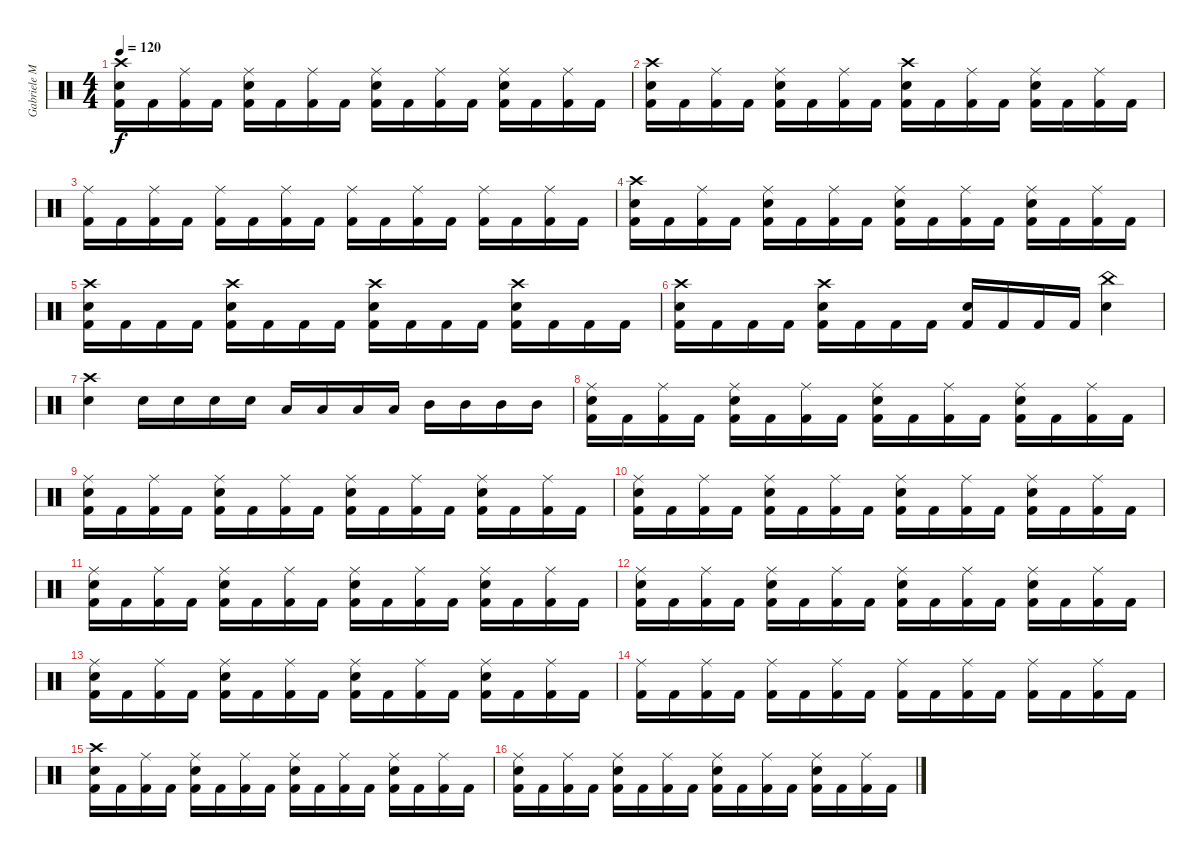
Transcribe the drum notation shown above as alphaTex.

\track ("Gabriele Malatesta" "Gabriele M") {instrument percussion}
\staff {score}
\articulation defaults
\ts (4 4)
\tempo 120
\clef neutral
\ks c
("Crash high (hit)" "Electric Snare (hit)" "Kick (hit) 2").16{dy f} "Kick (hit) 2".16 ("Ride (middle)" "Kick (hit) 2").16 "Kick (hit) 2".16 ("Ride (middle)" "Electric Snare (hit)" "Kick (hit) 2").16 "Kick (hit) 2".16 ("Ride (middle)" "Kick (hit) 2").16 "Kick (hit) 2".16 ("Ride (middle)" "Electric Snare (hit)" "Kick (hit) 2").16 "Kick (hit) 2".16 ("Ride (middle)" "Kick (hit) 2").16 "Kick (hit) 2".16 ("Ride (middle)" "Electric Snare (hit)" "Kick (hit) 2").16 "Kick (hit) 2".16 ("Ride (middle)" "Kick (hit) 2").16 "Kick (hit) 2".16 |
("Crash high (hit)" "Electric Snare (hit)" "Kick (hit) 2").16 "Kick (hit) 2".16 ("Ride (middle)" "Kick (hit) 2").16 "Kick (hit) 2".16 ("Ride (middle)" "Electric Snare (hit)" "Kick (hit) 2").16 "Kick (hit) 2".16 ("Ride (middle)" "Kick (hit) 2").16 "Kick (hit) 2".16 ("Crash high (hit)" "Electric Snare (hit)" "Kick (hit) 2").16 "Kick (hit) 2".16 ("Ride (middle)" "Kick (hit) 2").16 "Kick (hit) 2".16 ("Ride (middle)" "Electric Snare (hit)" "Kick (hit) 2").16 "Kick (hit) 2".16 ("Ride (middle)" "Kick (hit) 2").16 "Kick (hit) 2".16 |
("Ride (middle)" "Kick (hit) 2").16 "Kick (hit) 2".16 ("Ride (middle)" "Kick (hit) 2").16 "Kick (hit) 2".16 ("Ride (middle)" "Kick (hit) 2").16 "Kick (hit) 2".16 ("Ride (middle)" "Kick (hit) 2").16 "Kick (hit) 2".16 ("Ride (middle)" "Kick (hit) 2").16 "Kick (hit) 2".16 ("Ride (middle)" "Kick (hit) 2").16 "Kick (hit) 2".16 ("Ride (middle)" "Kick (hit) 2").16 "Kick (hit) 2".16 ("Ride (middle)" "Kick (hit) 2").16 "Kick (hit) 2".16 |
("Crash high (hit)" "Electric Snare (hit)" "Kick (hit) 2").16 "Kick (hit) 2".16 ("Ride (middle)" "Kick (hit) 2").16 "Kick (hit) 2".16 ("Ride (middle)" "Electric Snare (hit)" "Kick (hit) 2").16 "Kick (hit) 2".16 ("Ride (middle)" "Kick (hit) 2").16 "Kick (hit) 2".16 ("Ride (middle)" "Electric Snare (hit)" "Kick (hit) 2").16 "Kick (hit) 2".16 ("Ride (middle)" "Kick (hit) 2").16 "Kick (hit) 2".16 ("Ride (middle)" "Electric Snare (hit)" "Kick (hit) 2").16 "Kick (hit) 2".16 ("Ride (middle)" "Kick (hit) 2").16 "Kick (hit) 2".16 |
("Crash high (hit)" "Electric Snare (hit)" "Kick (hit) 2").16 "Kick (hit) 2".16 "Kick (hit) 2".16 "Kick (hit) 2".16 ("Crash high (hit)" "Electric Snare (hit)" "Kick (hit) 2").16 "Kick (hit) 2".16 "Kick (hit) 2".16 "Kick (hit) 2".16 ("Crash high (hit)" "Electric Snare (hit)" "Kick (hit) 2").16 "Kick (hit) 2".16 "Kick (hit) 2".16 "Kick (hit) 2".16 ("Crash high (hit)" "Electric Snare (hit)" "Kick (hit) 2").16 "Kick (hit) 2".16 "Kick (hit) 2".16 "Kick (hit) 2".16 |
("Crash high (hit)" "Electric Snare (hit)" "Kick (hit) 2").16 "Kick (hit) 2".16 "Kick (hit) 2".16 "Kick (hit) 2".16 ("Crash high (hit)" "Electric Snare (hit)" "Kick (hit) 2").16 "Kick (hit) 2".16 "Kick (hit) 2".16 "Kick (hit) 2".16 ("Electric Snare (hit)" "Kick (hit) 2").16 "Kick (hit) 2".16 "Kick (hit) 2".16 "Kick (hit) 2".16 ("China (hit)" "Electric Snare (hit)").4 |
("Crash high (hit)" "Electric Snare (hit)").4 "Electric Snare (hit)".16 "Electric Snare (hit)".16 "Electric Snare (hit)".16 "Electric Snare (hit)".16 "Low Tom (hit)".16 "Low Tom (hit)".16 "Low Tom (hit)".16 "Low Tom (hit)".16 "Mid Tom (hit)".16 "Mid Tom (hit)".16 "Mid Tom (hit)".16 "Mid Tom (hit)".16 |
("Ride (middle)" "Electric Snare (hit)" "Kick (hit) 2").16 "Kick (hit) 2".16 ("Ride (middle)" "Kick (hit) 2").16 "Kick (hit) 2".16 ("Ride (middle)" "Electric Snare (hit)" "Kick (hit) 2").16 "Kick (hit) 2".16 ("Ride (middle)" "Kick (hit) 2").16 "Kick (hit) 2".16 ("Ride (middle)" "Electric Snare (hit)" "Kick (hit) 2").16 "Kick (hit) 2".16 ("Ride (middle)" "Kick (hit) 2").16 "Kick (hit) 2".16 ("Ride (middle)" "Electric Snare (hit)" "Kick (hit) 2").16 "Kick (hit) 2".16 ("Ride (middle)" "Kick (hit) 2").16 "Kick (hit) 2".16 |
("Ride (middle)" "Electric Snare (hit)" "Kick (hit) 2").16 "Kick (hit) 2".16 ("Ride (middle)" "Kick (hit) 2").16 "Kick (hit) 2".16 ("Ride (middle)" "Electric Snare (hit)" "Kick (hit) 2").16 "Kick (hit) 2".16 ("Ride (middle)" "Kick (hit) 2").16 "Kick (hit) 2".16 ("Ride (middle)" "Electric Snare (hit)" "Kick (hit) 2").16 "Kick (hit) 2".16 ("Ride (middle)" "Kick (hit) 2").16 "Kick (hit) 2".16 ("Ride (middle)" "Electric Snare (hit)" "Kick (hit) 2").16 "Kick (hit) 2".16 ("Ride (middle)" "Kick (hit) 2").16 "Kick (hit) 2".16 |
("Ride (middle)" "Electric Snare (hit)" "Kick (hit) 2").16 "Kick (hit) 2".16 ("Ride (middle)" "Kick (hit) 2").16 "Kick (hit) 2".16 ("Ride (middle)" "Electric Snare (hit)" "Kick (hit) 2").16 "Kick (hit) 2".16 ("Ride (middle)" "Kick (hit) 2").16 "Kick (hit) 2".16 ("Ride (middle)" "Electric Snare (hit)" "Kick (hit) 2").16 "Kick (hit) 2".16 ("Ride (middle)" "Kick (hit) 2").16 "Kick (hit) 2".16 ("Ride (middle)" "Electric Snare (hit)" "Kick (hit) 2").16 "Kick (hit) 2".16 ("Ride (middle)" "Kick (hit) 2").16 "Kick (hit) 2".16 |
("Ride (middle)" "Electric Snare (hit)" "Kick (hit) 2").16 "Kick (hit) 2".16 ("Ride (middle)" "Kick (hit) 2").16 "Kick (hit) 2".16 ("Ride (middle)" "Electric Snare (hit)" "Kick (hit) 2").16 "Kick (hit) 2".16 ("Ride (middle)" "Kick (hit) 2").16 "Kick (hit) 2".16 ("Ride (middle)" "Electric Snare (hit)" "Kick (hit) 2").16 "Kick (hit) 2".16 ("Ride (middle)" "Kick (hit) 2").16 "Kick (hit) 2".16 ("Ride (middle)" "Electric Snare (hit)" "Kick (hit) 2").16 "Kick (hit) 2".16 ("Ride (middle)" "Kick (hit) 2").16 "Kick (hit) 2".16 |
("Ride (middle)" "Electric Snare (hit)" "Kick (hit) 2").16 "Kick (hit) 2".16 ("Ride (middle)" "Kick (hit) 2").16 "Kick (hit) 2".16 ("Ride (middle)" "Electric Snare (hit)" "Kick (hit) 2").16 "Kick (hit) 2".16 ("Ride (middle)" "Kick (hit) 2").16 "Kick (hit) 2".16 ("Ride (middle)" "Electric Snare (hit)" "Kick (hit) 2").16 "Kick (hit) 2".16 ("Ride (middle)" "Kick (hit) 2").16 "Kick (hit) 2".16 ("Ride (middle)" "Electric Snare (hit)" "Kick (hit) 2").16 "Kick (hit) 2".16 ("Ride (middle)" "Kick (hit) 2").16 "Kick (hit) 2".16 |
("Ride (middle)" "Electric Snare (hit)" "Kick (hit) 2").16 "Kick (hit) 2".16 ("Ride (middle)" "Kick (hit) 2").16 "Kick (hit) 2".16 ("Ride (middle)" "Electric Snare (hit)" "Kick (hit) 2").16 "Kick (hit) 2".16 ("Ride (middle)" "Kick (hit) 2").16 "Kick (hit) 2".16 ("Ride (middle)" "Electric Snare (hit)" "Kick (hit) 2").16 "Kick (hit) 2".16 ("Ride (middle)" "Kick (hit) 2").16 "Kick (hit) 2".16 ("Ride (middle)" "Electric Snare (hit)" "Kick (hit) 2").16 "Kick (hit) 2".16 ("Ride (middle)" "Kick (hit) 2").16 "Kick (hit) 2".16 |
("Ride (middle)" "Kick (hit) 2").16 "Kick (hit) 2".16 ("Ride (middle)" "Kick (hit) 2").16 "Kick (hit) 2".16 ("Ride (middle)" "Kick (hit) 2").16 "Kick (hit) 2".16 ("Ride (middle)" "Kick (hit) 2").16 "Kick (hit) 2".16 ("Ride (middle)" "Kick (hit) 2").16 "Kick (hit) 2".16 ("Ride (middle)" "Kick (hit) 2").16 "Kick (hit) 2".16 ("Ride (middle)" "Kick (hit) 2").16 "Kick (hit) 2".16 ("Ride (middle)" "Kick (hit) 2").16 "Kick (hit) 2".16 |
("Crash high (hit)" "Electric Snare (hit)" "Kick (hit) 2").16 "Kick (hit) 2".16 ("Ride (middle)" "Kick (hit) 2").16 "Kick (hit) 2".16 ("Ride (middle)" "Electric Snare (hit)" "Kick (hit) 2").16 "Kick (hit) 2".16 ("Ride (middle)" "Kick (hit) 2").16 "Kick (hit) 2".16 ("Ride (middle)" "Electric Snare (hit)" "Kick (hit) 2").16 "Kick (hit) 2".16 ("Ride (middle)" "Kick (hit) 2").16 "Kick (hit) 2".16 ("Ride (middle)" "Electric Snare (hit)" "Kick (hit) 2").16 "Kick (hit) 2".16 ("Ride (middle)" "Kick (hit) 2").16 "Kick (hit) 2".16 |
("Ride (middle)" "Electric Snare (hit)" "Kick (hit) 2").16 "Kick (hit) 2".16 ("Ride (middle)" "Kick (hit) 2").16 "Kick (hit) 2".16 ("Ride (middle)" "Electric Snare (hit)" "Kick (hit) 2").16 "Kick (hit) 2".16 ("Ride (middle)" "Kick (hit) 2").16 "Kick (hit) 2".16 ("Ride (middle)" "Electric Snare (hit)" "Kick (hit) 2").16 "Kick (hit) 2".16 ("Ride (middle)" "Kick (hit) 2").16 "Kick (hit) 2".16 ("Ride (middle)" "Electric Snare (hit)" "Kick (hit) 2").16 "Kick (hit) 2".16 ("Ride (middle)" "Kick (hit) 2").16 "Kick (hit) 2".16
